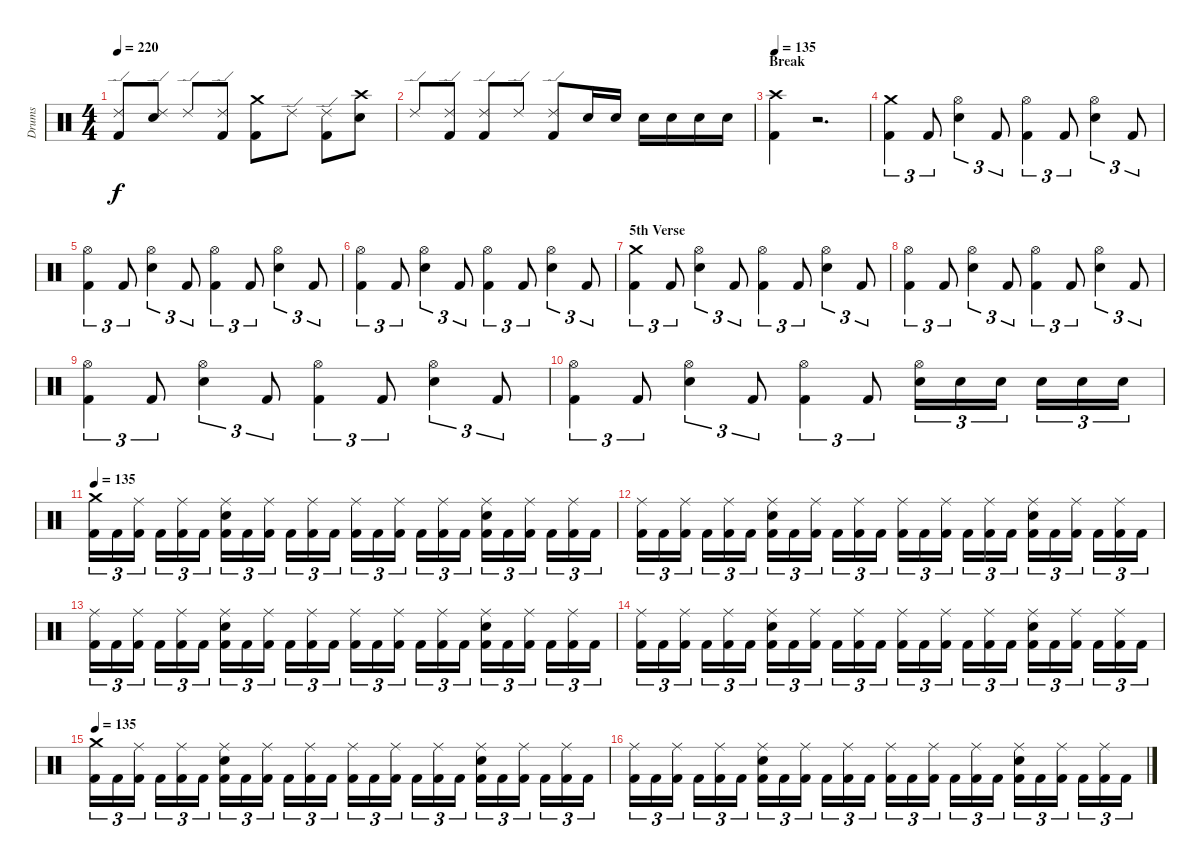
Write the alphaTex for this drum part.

\track ("Drums" "Drums") {instrument percussion}
\staff {score}
\articulation defaults
\ts (4 4)
\tempo 220
\clef neutral
\ks c
("Ride (edge) 2" "Kick (hit) 2").8{dy f} ("Ride (edge) 2" "Electric Snare (hit)").8 "Ride (edge) 2".8 ("Ride (edge) 2" "Kick (hit) 2").8 ("Crash medium (hit)" "Kick (hit) 2").8 "Ride (edge) 2".8 ("Ride (edge) 2" "Kick (hit) 2").8 ("Crash high (hit)" "Electric Snare (hit)").8 |
"Ride (edge) 2".8 ("Ride (edge) 2" "Kick (hit) 2").8 ("Ride (edge) 2" "Kick (hit) 2").8 "Ride (edge) 2".8 ("Ride (edge) 2" "Kick (hit) 2").8 "Electric Snare (hit)".16 "Electric Snare (hit)".16 "Electric Snare (hit)".16 "Electric Snare (hit)".16 "Electric Snare (hit)".16 "Electric Snare (hit)".16 |
\section ("" "Break")
\tempo 135
("Crash high (hit)" "Kick (hit) 2").4 r.2{d} |
("Crash medium (hit)" "Kick (hit) 2").4{tu (3 2)} "Kick (hit) 2".8{tu (3 2)} ("Hi-Hat (open)" "Electric Snare (hit)").4{tu (3 2)} "Kick (hit) 2".8{tu (3 2)} ("Hi-Hat (open)" "Kick (hit) 2").4{tu (3 2)} "Kick (hit) 2".8{tu (3 2)} ("Hi-Hat (open)" "Electric Snare (hit)").4{tu (3 2)} "Kick (hit) 2".8{tu (3 2)} |
("Hi-Hat (open)" "Kick (hit) 2").4{tu (3 2)} "Kick (hit) 2".8{tu (3 2)} ("Hi-Hat (open)" "Electric Snare (hit)").4{tu (3 2)} "Kick (hit) 2".8{tu (3 2)} ("Hi-Hat (open)" "Kick (hit) 2").4{tu (3 2)} "Kick (hit) 2".8{tu (3 2)} ("Hi-Hat (open)" "Electric Snare (hit)").4{tu (3 2)} "Kick (hit) 2".8{tu (3 2)} |
("Hi-Hat (open)" "Kick (hit) 2").4{tu (3 2)} "Kick (hit) 2".8{tu (3 2)} ("Hi-Hat (open)" "Electric Snare (hit)").4{tu (3 2)} "Kick (hit) 2".8{tu (3 2)} ("Hi-Hat (open)" "Kick (hit) 2").4{tu (3 2)} "Kick (hit) 2".8{tu (3 2)} ("Hi-Hat (open)" "Electric Snare (hit)").4{tu (3 2)} "Kick (hit) 2".8{tu (3 2)} |
\section ("" "5th Verse")
("Crash medium (hit)" "Kick (hit) 2").4{tu (3 2)} "Kick (hit) 2".8{tu (3 2)} ("Hi-Hat (open)" "Electric Snare (hit)").4{tu (3 2)} "Kick (hit) 2".8{tu (3 2)} ("Hi-Hat (open)" "Kick (hit) 2").4{tu (3 2)} "Kick (hit) 2".8{tu (3 2)} ("Hi-Hat (open)" "Electric Snare (hit)").4{tu (3 2)} "Kick (hit) 2".8{tu (3 2)} |
("Hi-Hat (open)" "Kick (hit) 2").4{tu (3 2)} "Kick (hit) 2".8{tu (3 2)} ("Hi-Hat (open)" "Electric Snare (hit)").4{tu (3 2)} "Kick (hit) 2".8{tu (3 2)} ("Hi-Hat (open)" "Kick (hit) 2").4{tu (3 2)} "Kick (hit) 2".8{tu (3 2)} ("Hi-Hat (open)" "Electric Snare (hit)").4{tu (3 2)} "Kick (hit) 2".8{tu (3 2)} |
("Hi-Hat (open)" "Kick (hit) 2").4{tu (3 2)} "Kick (hit) 2".8{tu (3 2)} ("Hi-Hat (open)" "Electric Snare (hit)").4{tu (3 2)} "Kick (hit) 2".8{tu (3 2)} ("Hi-Hat (open)" "Kick (hit) 2").4{tu (3 2)} "Kick (hit) 2".8{tu (3 2)} ("Hi-Hat (open)" "Electric Snare (hit)").4{tu (3 2)} "Kick (hit) 2".8{tu (3 2)} |
("Hi-Hat (open)" "Kick (hit) 2").4{tu (3 2)} "Kick (hit) 2".8{tu (3 2)} ("Hi-Hat (open)" "Electric Snare (hit)").4{tu (3 2)} "Kick (hit) 2".8{tu (3 2)} ("Hi-Hat (open)" "Kick (hit) 2").4{tu (3 2)} "Kick (hit) 2".8{tu (3 2)} ("Hi-Hat (open)" "Electric Snare (hit)").16{tu (3 2)} "Electric Snare (hit)".16{tu (3 2)} "Electric Snare (hit)".16{tu (3 2)} "Electric Snare (hit)".16{tu (3 2)} "Electric Snare (hit)".16{tu (3 2)} "Electric Snare (hit)".16{tu (3 2)} |
\tempo 135
("Crash medium (hit)" "Kick (hit) 2").16{tu (3 2)} "Kick (hit) 2".16{tu (3 2)} ("Ride (middle)" "Kick (hit) 2").16{tu (3 2)} "Kick (hit) 2".16{tu (3 2)} ("Ride (middle)" "Kick (hit) 2").16{tu (3 2)} "Kick (hit) 2".16{tu (3 2)} ("Ride (middle)" "Electric Snare (hit)" "Kick (hit) 2").16{tu (3 2)} "Kick (hit) 2".16{tu (3 2)} ("Ride (middle)" "Kick (hit) 2").16{tu (3 2)} "Kick (hit) 2".16{tu (3 2)} ("Ride (middle)" "Kick (hit) 2").16{tu (3 2)} "Kick (hit) 2".16{tu (3 2)} ("Ride (middle)" "Kick (hit) 2").16{tu (3 2)} "Kick (hit) 2".16{tu (3 2)} ("Ride (middle)" "Kick (hit) 2").16{tu (3 2)} "Kick (hit) 2".16{tu (3 2)} ("Ride (middle)" "Kick (hit) 2").16{tu (3 2)} "Kick (hit) 2".16{tu (3 2)} ("Ride (middle)" "Electric Snare (hit)" "Kick (hit) 2").16{tu (3 2)} "Kick (hit) 2".16{tu (3 2)} ("Ride (middle)" "Kick (hit) 2").16{tu (3 2)} "Kick (hit) 2".16{tu (3 2)} ("Ride (middle)" "Kick (hit) 2").16{tu (3 2)} "Kick (hit) 2".16{tu (3 2)} |
("Ride (middle)" "Kick (hit) 2").16{tu (3 2)} "Kick (hit) 2".16{tu (3 2)} ("Ride (middle)" "Kick (hit) 2").16{tu (3 2)} "Kick (hit) 2".16{tu (3 2)} ("Ride (middle)" "Kick (hit) 2").16{tu (3 2)} "Kick (hit) 2".16{tu (3 2)} ("Ride (middle)" "Electric Snare (hit)" "Kick (hit) 2").16{tu (3 2)} "Kick (hit) 2".16{tu (3 2)} ("Ride (middle)" "Kick (hit) 2").16{tu (3 2)} "Kick (hit) 2".16{tu (3 2)} ("Ride (middle)" "Kick (hit) 2").16{tu (3 2)} "Kick (hit) 2".16{tu (3 2)} ("Ride (middle)" "Kick (hit) 2").16{tu (3 2)} "Kick (hit) 2".16{tu (3 2)} ("Ride (middle)" "Kick (hit) 2").16{tu (3 2)} "Kick (hit) 2".16{tu (3 2)} ("Ride (middle)" "Kick (hit) 2").16{tu (3 2)} "Kick (hit) 2".16{tu (3 2)} ("Ride (middle)" "Electric Snare (hit)" "Kick (hit) 2").16{tu (3 2)} "Kick (hit) 2".16{tu (3 2)} ("Ride (middle)" "Kick (hit) 2").16{tu (3 2)} "Kick (hit) 2".16{tu (3 2)} ("Ride (middle)" "Kick (hit) 2").16{tu (3 2)} "Kick (hit) 2".16{tu (3 2)} |
("Ride (middle)" "Kick (hit) 2").16{tu (3 2)} "Kick (hit) 2".16{tu (3 2)} ("Ride (middle)" "Kick (hit) 2").16{tu (3 2)} "Kick (hit) 2".16{tu (3 2)} ("Ride (middle)" "Kick (hit) 2").16{tu (3 2)} "Kick (hit) 2".16{tu (3 2)} ("Ride (middle)" "Electric Snare (hit)" "Kick (hit) 2").16{tu (3 2)} "Kick (hit) 2".16{tu (3 2)} ("Ride (middle)" "Kick (hit) 2").16{tu (3 2)} "Kick (hit) 2".16{tu (3 2)} ("Ride (middle)" "Kick (hit) 2").16{tu (3 2)} "Kick (hit) 2".16{tu (3 2)} ("Ride (middle)" "Kick (hit) 2").16{tu (3 2)} "Kick (hit) 2".16{tu (3 2)} ("Ride (middle)" "Kick (hit) 2").16{tu (3 2)} "Kick (hit) 2".16{tu (3 2)} ("Ride (middle)" "Kick (hit) 2").16{tu (3 2)} "Kick (hit) 2".16{tu (3 2)} ("Ride (middle)" "Electric Snare (hit)" "Kick (hit) 2").16{tu (3 2)} "Kick (hit) 2".16{tu (3 2)} ("Ride (middle)" "Kick (hit) 2").16{tu (3 2)} "Kick (hit) 2".16{tu (3 2)} ("Ride (middle)" "Kick (hit) 2").16{tu (3 2)} "Kick (hit) 2".16{tu (3 2)} |
("Ride (middle)" "Kick (hit) 2").16{tu (3 2)} "Kick (hit) 2".16{tu (3 2)} ("Ride (middle)" "Kick (hit) 2").16{tu (3 2)} "Kick (hit) 2".16{tu (3 2)} ("Ride (middle)" "Kick (hit) 2").16{tu (3 2)} "Kick (hit) 2".16{tu (3 2)} ("Ride (middle)" "Electric Snare (hit)" "Kick (hit) 2").16{tu (3 2)} "Kick (hit) 2".16{tu (3 2)} ("Ride (middle)" "Kick (hit) 2").16{tu (3 2)} "Kick (hit) 2".16{tu (3 2)} ("Ride (middle)" "Kick (hit) 2").16{tu (3 2)} "Kick (hit) 2".16{tu (3 2)} ("Ride (middle)" "Kick (hit) 2").16{tu (3 2)} "Kick (hit) 2".16{tu (3 2)} ("Ride (middle)" "Kick (hit) 2").16{tu (3 2)} "Kick (hit) 2".16{tu (3 2)} ("Ride (middle)" "Kick (hit) 2").16{tu (3 2)} "Kick (hit) 2".16{tu (3 2)} ("Ride (middle)" "Electric Snare (hit)" "Kick (hit) 2").16{tu (3 2)} "Kick (hit) 2".16{tu (3 2)} ("Ride (middle)" "Kick (hit) 2").16{tu (3 2)} "Kick (hit) 2".16{tu (3 2)} ("Ride (middle)" "Kick (hit) 2").16{tu (3 2)} "Kick (hit) 2".16{tu (3 2)} |
\tempo 135
("Crash medium (hit)" "Kick (hit) 2").16{tu (3 2)} "Kick (hit) 2".16{tu (3 2)} ("Ride (middle)" "Kick (hit) 2").16{tu (3 2)} "Kick (hit) 2".16{tu (3 2)} ("Ride (middle)" "Kick (hit) 2").16{tu (3 2)} "Kick (hit) 2".16{tu (3 2)} ("Ride (middle)" "Electric Snare (hit)" "Kick (hit) 2").16{tu (3 2)} "Kick (hit) 2".16{tu (3 2)} ("Ride (middle)" "Kick (hit) 2").16{tu (3 2)} "Kick (hit) 2".16{tu (3 2)} ("Ride (middle)" "Kick (hit) 2").16{tu (3 2)} "Kick (hit) 2".16{tu (3 2)} ("Ride (middle)" "Kick (hit) 2").16{tu (3 2)} "Kick (hit) 2".16{tu (3 2)} ("Ride (middle)" "Kick (hit) 2").16{tu (3 2)} "Kick (hit) 2".16{tu (3 2)} ("Ride (middle)" "Kick (hit) 2").16{tu (3 2)} "Kick (hit) 2".16{tu (3 2)} ("Ride (middle)" "Electric Snare (hit)" "Kick (hit) 2").16{tu (3 2)} "Kick (hit) 2".16{tu (3 2)} ("Ride (middle)" "Kick (hit) 2").16{tu (3 2)} "Kick (hit) 2".16{tu (3 2)} ("Ride (middle)" "Kick (hit) 2").16{tu (3 2)} "Kick (hit) 2".16{tu (3 2)} |
("Ride (middle)" "Kick (hit) 2").16{tu (3 2)} "Kick (hit) 2".16{tu (3 2)} ("Ride (middle)" "Kick (hit) 2").16{tu (3 2)} "Kick (hit) 2".16{tu (3 2)} ("Ride (middle)" "Kick (hit) 2").16{tu (3 2)} "Kick (hit) 2".16{tu (3 2)} ("Ride (middle)" "Electric Snare (hit)" "Kick (hit) 2").16{tu (3 2)} "Kick (hit) 2".16{tu (3 2)} ("Ride (middle)" "Kick (hit) 2").16{tu (3 2)} "Kick (hit) 2".16{tu (3 2)} ("Ride (middle)" "Kick (hit) 2").16{tu (3 2)} "Kick (hit) 2".16{tu (3 2)} ("Ride (middle)" "Kick (hit) 2").16{tu (3 2)} "Kick (hit) 2".16{tu (3 2)} ("Ride (middle)" "Kick (hit) 2").16{tu (3 2)} "Kick (hit) 2".16{tu (3 2)} ("Ride (middle)" "Kick (hit) 2").16{tu (3 2)} "Kick (hit) 2".16{tu (3 2)} ("Ride (middle)" "Electric Snare (hit)" "Kick (hit) 2").16{tu (3 2)} "Kick (hit) 2".16{tu (3 2)} ("Ride (middle)" "Kick (hit) 2").16{tu (3 2)} "Kick (hit) 2".16{tu (3 2)} ("Ride (middle)" "Kick (hit) 2").16{tu (3 2)} "Kick (hit) 2".16{tu (3 2)}
